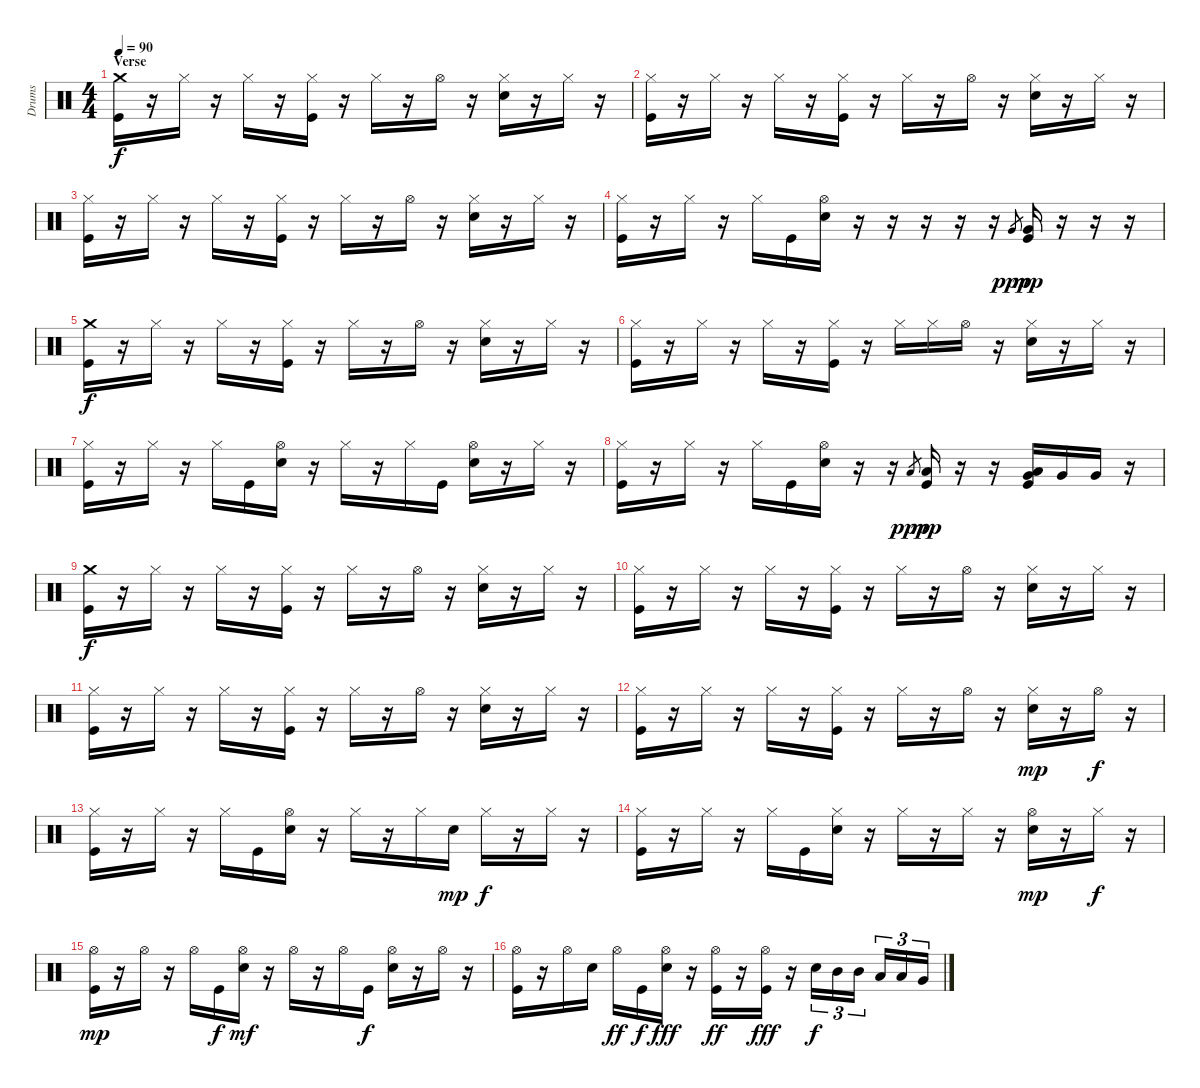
\track ("Drums" "Drums") {instrument percussion}
\staff {score}
\articulation defaults
\ts (4 4)
\section ("" "Verse")
\tempo 90
\clef neutral
\ks c
("Crash medium (hit)" "Kick (hit)").16{dy f} r.16 "Hi-Hat (closed)".16 r.16 "Hi-Hat (closed)".16 r.16 ("Hi-Hat (closed)" "Kick (hit)").16 r.16 "Hi-Hat (closed)".16 r.16 "Hi-Hat (open)".16 r.16 ("Hi-Hat (closed)" "Snare (hit) 2").16 r.16 "Hi-Hat (closed)".16 r.16 |
("Hi-Hat (closed)" "Kick (hit)").16 r.16 "Hi-Hat (closed)".16 r.16 "Hi-Hat (closed)".16 r.16 ("Hi-Hat (closed)" "Kick (hit)").16 r.16 "Hi-Hat (closed)".16 r.16 "Hi-Hat (open)".16 r.16 ("Hi-Hat (closed)" "Snare (hit) 2").16 r.16 "Hi-Hat (closed)".16 r.16 |
("Hi-Hat (closed)" "Kick (hit)").16 r.16 "Hi-Hat (closed)".16 r.16 "Hi-Hat (closed)".16 r.16 ("Hi-Hat (closed)" "Kick (hit)").16 r.16 "Hi-Hat (closed)".16 r.16 "Hi-Hat (open)".16 r.16 ("Hi-Hat (closed)" "Snare (hit) 2").16 r.16 "Hi-Hat (closed)".16 r.16 |
("Hi-Hat (closed)" "Kick (hit)").16 r.16 "Hi-Hat (closed)".16 r.16 "Hi-Hat (closed)".16 "Kick (hit)".16 ("Hi-Hat (open)" "Snare (hit) 2").16 r.16 r.16 r.16 r.16 r.16 "Very Low Tom (hit)".8{gr dy ppp} ("Very Low Tom (hit)" "Kick (hit)").16{dy mp} r.16 r.16 r.16 |
("Crash medium (hit)" "Kick (hit)").16{dy f} r.16 "Hi-Hat (closed)".16 r.16 "Hi-Hat (closed)".16 r.16 ("Hi-Hat (closed)" "Kick (hit)").16 r.16 "Hi-Hat (closed)".16 r.16 "Hi-Hat (open)".16 r.16 ("Hi-Hat (closed)" "Snare (hit) 2").16 r.16 "Hi-Hat (closed)".16 r.16 |
("Hi-Hat (closed)" "Kick (hit)").16 r.16 "Hi-Hat (closed)".16 r.16 "Hi-Hat (closed)".16 r.16 ("Hi-Hat (closed)" "Kick (hit)").16 r.16 "Hi-Hat (closed)".16 "Hi-Hat (closed)".16 "Hi-Hat (open)".16 r.16 ("Hi-Hat (closed)" "Snare (hit) 2").16 r.16 "Hi-Hat (closed)".16 r.16 |
("Hi-Hat (closed)" "Kick (hit)").16 r.16 "Hi-Hat (closed)".16 r.16 "Hi-Hat (closed)".16 "Kick (hit)".16 ("Hi-Hat (open)" "Snare (hit) 2").16 r.16 "Hi-Hat (closed)".16 r.16 "Hi-Hat (closed)".16 "Kick (hit)".16 ("Hi-Hat (open)" "Snare (hit) 2").16 r.16 "Hi-Hat (closed)".16 r.16 |
("Hi-Hat (closed)" "Kick (hit)").16 r.16 "Hi-Hat (closed)".16 r.16 "Hi-Hat (closed)".16 "Kick (hit)".16 ("Hi-Hat (open)" "Snare (hit) 2").16 r.16 r.16 "Low Tom (hit)".8{gr dy ppp} ("Low Tom (hit)" "Kick (hit)").16{dy mp} r.16 r.16 ("Low Tom (hit)" "Very Low Tom (hit)" "Kick (hit)").16 "Very Low Tom (hit)".16 "Very Low Tom (hit)".16 r.16 |
("Crash medium (hit)" "Kick (hit)").16{dy f} r.16 "Hi-Hat (closed)".16 r.16 "Hi-Hat (closed)".16 r.16 ("Hi-Hat (closed)" "Kick (hit)").16 r.16 "Hi-Hat (closed)".16 r.16 "Hi-Hat (open)".16 r.16 ("Hi-Hat (closed)" "Snare (hit) 2").16 r.16 "Hi-Hat (closed)".16 r.16 |
("Hi-Hat (closed)" "Kick (hit)").16 r.16 "Hi-Hat (closed)".16 r.16 "Hi-Hat (closed)".16 r.16 ("Hi-Hat (closed)" "Kick (hit)").16 r.16 "Hi-Hat (closed)".16 r.16 "Hi-Hat (open)".16 r.16 ("Hi-Hat (closed)" "Snare (hit) 2").16 r.16 "Hi-Hat (closed)".16 r.16 |
("Hi-Hat (closed)" "Kick (hit)").16 r.16 "Hi-Hat (closed)".16 r.16 "Hi-Hat (closed)".16 r.16 ("Hi-Hat (closed)" "Kick (hit)").16 r.16 "Hi-Hat (closed)".16 r.16 "Hi-Hat (open)".16 r.16 ("Hi-Hat (closed)" "Snare (hit) 2").16 r.16 "Hi-Hat (closed)".16 r.16 |
("Hi-Hat (closed)" "Kick (hit)").16 r.16 "Hi-Hat (closed)".16 r.16 "Hi-Hat (closed)".16 r.16 ("Hi-Hat (closed)" "Kick (hit)").16 r.16 "Hi-Hat (closed)".16 r.16 "Hi-Hat (open)".16 r.16 ("Hi-Hat (closed)" "Snare (hit) 2").16{dy mp} r.16 "Hi-Hat (open)".16{dy f} r.16 |
("Hi-Hat (closed)" "Kick (hit)").16 r.16 "Hi-Hat (closed)".16 r.16 "Hi-Hat (closed)".16 "Kick (hit)".16 ("Hi-Hat (open)" "Snare (hit) 2").16 r.16 "Hi-Hat (closed)".16 r.16 "Hi-Hat (closed)".16 "Snare (hit) 2".16{dy mp} "Hi-Hat (closed)".16{dy f} r.16 "Hi-Hat (closed)".16 r.16 |
("Hi-Hat (closed)" "Kick (hit)").16 r.16 "Hi-Hat (closed)".16 r.16 "Hi-Hat (closed)".16 "Kick (hit)".16 ("Hi-Hat (closed)" "Snare (hit) 2").16 r.16 "Hi-Hat (closed)".16 r.16 "Hi-Hat (closed)".16 r.16 ("Hi-Hat (open)" "Snare (hit) 2").16{dy mp} r.16 "Hi-Hat (closed)".16{dy f} r.16 |
("Hi-Hat (open)" "Kick (hit)").16{dy mp} r.16 "Hi-Hat (open)".16 r.16 "Hi-Hat (open)".16 "Kick (hit)".16{dy f} ("Hi-Hat (open)" "Snare (hit) 2").16{dy mf} r.16 "Hi-Hat (open)".16 r.16 "Hi-Hat (open)".16 "Kick (hit)".16{dy f} ("Hi-Hat (open)" "Snare (hit) 2").16 r.16 "Hi-Hat (open)".16 r.16 |
("Hi-Hat (open)" "Kick (hit)").16 r.16 "Hi-Hat (open)".16 "Snare (hit) 2".16 "Hi-Hat (open)".16{dy ff} "Kick (hit)".16{dy f} ("Hi-Hat (open)" "Snare (hit) 2").16{dy fff} r.16 ("Hi-Hat (open)" "Kick (hit)").16{dy ff} r.16 ("Hi-Hat (open)" "Kick (hit)").16{dy fff} r.16 "Snare (hit) 2".16{tu (3 2) dy f} "Mid Tom (hit)".16{tu (3 2)} "Mid Tom (hit)".16{tu (3 2)} "Low Tom (hit)".16{tu (3 2)} "Low Tom (hit)".16{tu (3 2)} "Very Low Tom (hit)".16{tu (3 2)}
